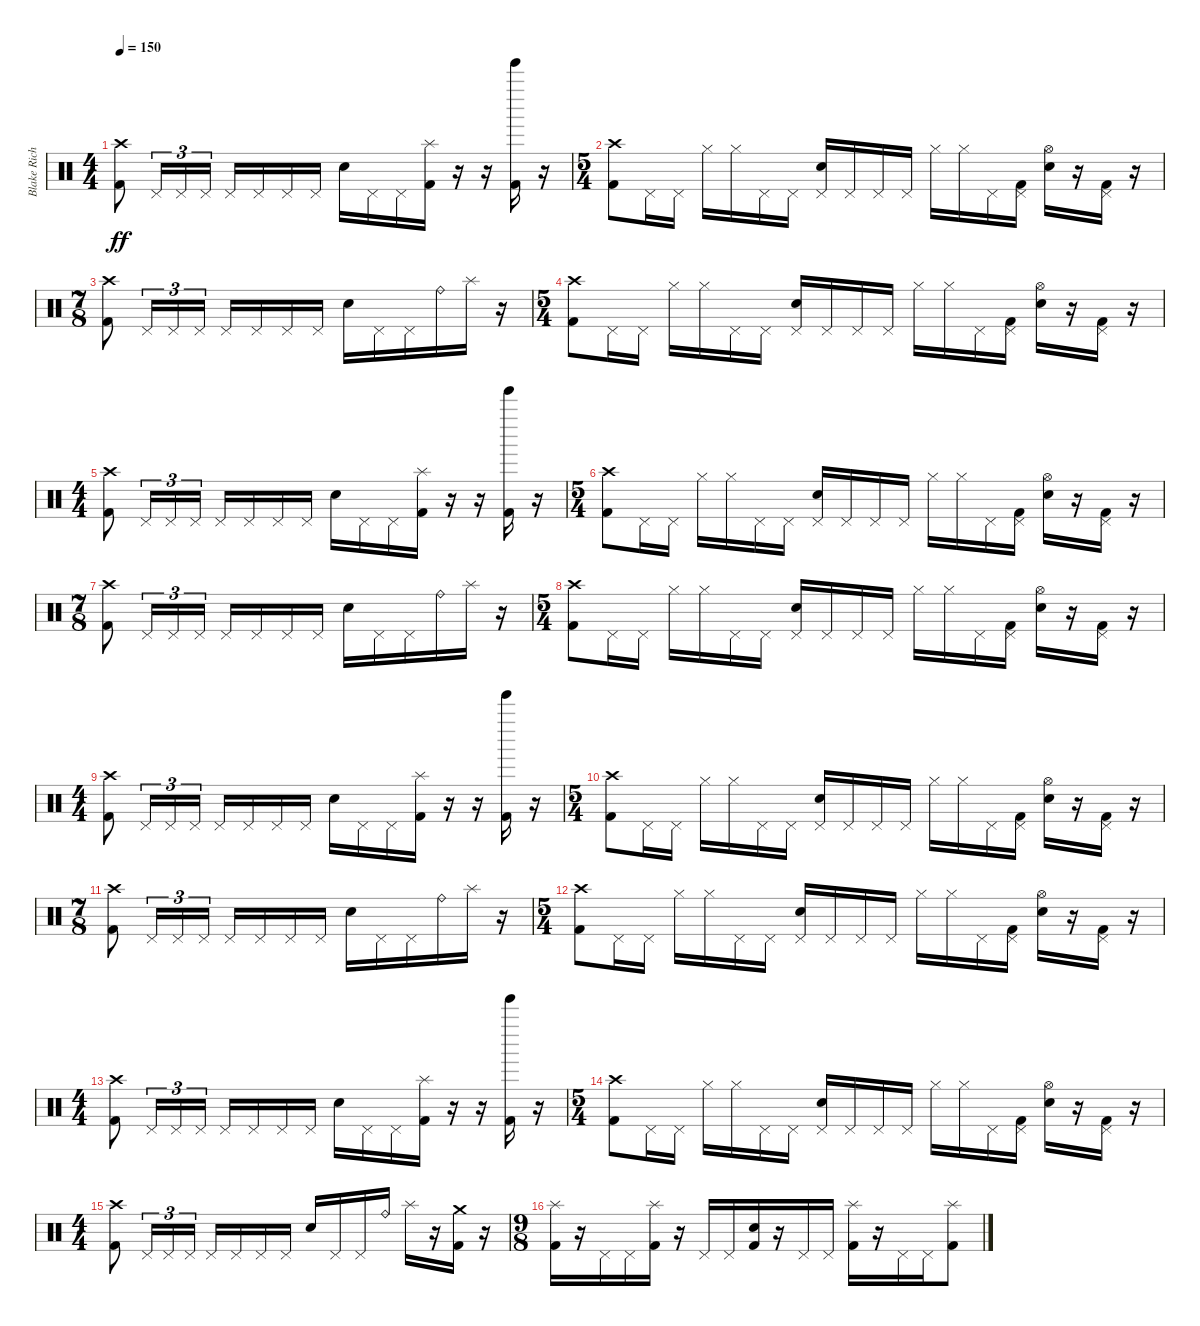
\track ("Blake Richardson" "Blake Rich") {instrument percussion}
\staff {score}
\articulation defaults
\ts (4 4)
\tempo 150
\clef neutral
\ks c
("Crash high (hit)" "Kick (hit) 2").8{dy ff} "Pedal Hi-Hat (hit)".16{tu (3 2)} "Pedal Hi-Hat (hit)".16{tu (3 2)} "Pedal Hi-Hat (hit)".16{tu (3 2)} "Pedal Hi-Hat (hit)".16 "Pedal Hi-Hat (hit)".16 "Pedal Hi-Hat (hit)".16 "Pedal Hi-Hat (hit)".16 "Electric Snare (hit)".16 "Pedal Hi-Hat (hit)".16 "Pedal Hi-Hat (hit)".16 ("Splash (hit)" "Kick (hit) 2").16 r.16 r.16 ("Tinkle Bell (hit)" "Kick (hit) 2").16 r.16 |
\ts (5 4)
("Crash high (hit)" "Kick (hit) 2").8 "Pedal Hi-Hat (hit)".16 "Pedal Hi-Hat (hit)".16 "Hi-Hat (closed)".16 "Hi-Hat (closed)".16 "Pedal Hi-Hat (hit)".16 "Pedal Hi-Hat (hit)".16 ("Pedal Hi-Hat (hit)" "Electric Snare (hit)").16 "Pedal Hi-Hat (hit)".16 "Pedal Hi-Hat (hit)".16 "Pedal Hi-Hat (hit)".16 "Hi-Hat (closed)".16 "Hi-Hat (closed)".16 "Pedal Hi-Hat (hit)".16 ("Pedal Hi-Hat (hit)" "Kick (hit) 2").16 ("Hi-Hat (open)" "Electric Snare (hit)").16 r.16 ("Pedal Hi-Hat (hit)" "Kick (hit) 2").16 r.16 |
\ts (7 8)
("Crash high (hit)" "Kick (hit) 2").8 "Pedal Hi-Hat (hit)".16{tu (3 2)} "Pedal Hi-Hat (hit)".16{tu (3 2)} "Pedal Hi-Hat (hit)".16{tu (3 2)} "Pedal Hi-Hat (hit)".16 "Pedal Hi-Hat (hit)".16 "Pedal Hi-Hat (hit)".16 "Pedal Hi-Hat (hit)".16 "Electric Snare (hit)".16 "Pedal Hi-Hat (hit)".16 "Pedal Hi-Hat (hit)".16 "Ride (bell)".16 "Splash (hit)".16 r.16 |
\ts (5 4)
("Crash high (hit)" "Kick (hit) 2").8 "Pedal Hi-Hat (hit)".16 "Pedal Hi-Hat (hit)".16 "Hi-Hat (closed)".16 "Hi-Hat (closed)".16 "Pedal Hi-Hat (hit)".16 "Pedal Hi-Hat (hit)".16 ("Pedal Hi-Hat (hit)" "Electric Snare (hit)").16 "Pedal Hi-Hat (hit)".16 "Pedal Hi-Hat (hit)".16 "Pedal Hi-Hat (hit)".16 "Hi-Hat (closed)".16 "Hi-Hat (closed)".16 "Pedal Hi-Hat (hit)".16 ("Pedal Hi-Hat (hit)" "Kick (hit) 2").16 ("Hi-Hat (open)" "Electric Snare (hit)").16 r.16 ("Pedal Hi-Hat (hit)" "Kick (hit) 2").16 r.16 |
\ts (4 4)
("Crash high (hit)" "Kick (hit) 2").8 "Pedal Hi-Hat (hit)".16{tu (3 2)} "Pedal Hi-Hat (hit)".16{tu (3 2)} "Pedal Hi-Hat (hit)".16{tu (3 2)} "Pedal Hi-Hat (hit)".16 "Pedal Hi-Hat (hit)".16 "Pedal Hi-Hat (hit)".16 "Pedal Hi-Hat (hit)".16 "Electric Snare (hit)".16 "Pedal Hi-Hat (hit)".16 "Pedal Hi-Hat (hit)".16 ("Splash (hit)" "Kick (hit) 2").16 r.16 r.16 ("Tinkle Bell (hit)" "Kick (hit) 2").16 r.16 |
\ts (5 4)
("Crash high (hit)" "Kick (hit) 2").8 "Pedal Hi-Hat (hit)".16 "Pedal Hi-Hat (hit)".16 "Hi-Hat (closed)".16 "Hi-Hat (closed)".16 "Pedal Hi-Hat (hit)".16 "Pedal Hi-Hat (hit)".16 ("Pedal Hi-Hat (hit)" "Electric Snare (hit)").16 "Pedal Hi-Hat (hit)".16 "Pedal Hi-Hat (hit)".16 "Pedal Hi-Hat (hit)".16 "Hi-Hat (closed)".16 "Hi-Hat (closed)".16 "Pedal Hi-Hat (hit)".16 ("Pedal Hi-Hat (hit)" "Kick (hit) 2").16 ("Hi-Hat (open)" "Electric Snare (hit)").16 r.16 ("Pedal Hi-Hat (hit)" "Kick (hit) 2").16 r.16 |
\ts (7 8)
("Crash high (hit)" "Kick (hit) 2").8 "Pedal Hi-Hat (hit)".16{tu (3 2)} "Pedal Hi-Hat (hit)".16{tu (3 2)} "Pedal Hi-Hat (hit)".16{tu (3 2)} "Pedal Hi-Hat (hit)".16 "Pedal Hi-Hat (hit)".16 "Pedal Hi-Hat (hit)".16 "Pedal Hi-Hat (hit)".16 "Electric Snare (hit)".16 "Pedal Hi-Hat (hit)".16 "Pedal Hi-Hat (hit)".16 "Ride (bell)".16 "Splash (hit)".16 r.16 |
\ts (5 4)
("Crash high (hit)" "Kick (hit) 2").8 "Pedal Hi-Hat (hit)".16 "Pedal Hi-Hat (hit)".16 "Hi-Hat (closed)".16 "Hi-Hat (closed)".16 "Pedal Hi-Hat (hit)".16 "Pedal Hi-Hat (hit)".16 ("Pedal Hi-Hat (hit)" "Electric Snare (hit)").16 "Pedal Hi-Hat (hit)".16 "Pedal Hi-Hat (hit)".16 "Pedal Hi-Hat (hit)".16 "Hi-Hat (closed)".16 "Hi-Hat (closed)".16 "Pedal Hi-Hat (hit)".16 ("Pedal Hi-Hat (hit)" "Kick (hit) 2").16 ("Hi-Hat (open)" "Electric Snare (hit)").16 r.16 ("Pedal Hi-Hat (hit)" "Kick (hit) 2").16 r.16 |
\ts (4 4)
("Crash high (hit)" "Kick (hit) 2").8 "Pedal Hi-Hat (hit)".16{tu (3 2)} "Pedal Hi-Hat (hit)".16{tu (3 2)} "Pedal Hi-Hat (hit)".16{tu (3 2)} "Pedal Hi-Hat (hit)".16 "Pedal Hi-Hat (hit)".16 "Pedal Hi-Hat (hit)".16 "Pedal Hi-Hat (hit)".16 "Electric Snare (hit)".16 "Pedal Hi-Hat (hit)".16 "Pedal Hi-Hat (hit)".16 ("Splash (hit)" "Kick (hit) 2").16 r.16 r.16 ("Tinkle Bell (hit)" "Kick (hit) 2").16 r.16 |
\ts (5 4)
("Crash high (hit)" "Kick (hit) 2").8 "Pedal Hi-Hat (hit)".16 "Pedal Hi-Hat (hit)".16 "Hi-Hat (closed)".16 "Hi-Hat (closed)".16 "Pedal Hi-Hat (hit)".16 "Pedal Hi-Hat (hit)".16 ("Pedal Hi-Hat (hit)" "Electric Snare (hit)").16 "Pedal Hi-Hat (hit)".16 "Pedal Hi-Hat (hit)".16 "Pedal Hi-Hat (hit)".16 "Hi-Hat (closed)".16 "Hi-Hat (closed)".16 "Pedal Hi-Hat (hit)".16 ("Pedal Hi-Hat (hit)" "Kick (hit) 2").16 ("Hi-Hat (open)" "Electric Snare (hit)").16 r.16 ("Pedal Hi-Hat (hit)" "Kick (hit) 2").16 r.16 |
\ts (7 8)
("Crash high (hit)" "Kick (hit) 2").8 "Pedal Hi-Hat (hit)".16{tu (3 2)} "Pedal Hi-Hat (hit)".16{tu (3 2)} "Pedal Hi-Hat (hit)".16{tu (3 2)} "Pedal Hi-Hat (hit)".16 "Pedal Hi-Hat (hit)".16 "Pedal Hi-Hat (hit)".16 "Pedal Hi-Hat (hit)".16 "Electric Snare (hit)".16 "Pedal Hi-Hat (hit)".16 "Pedal Hi-Hat (hit)".16 "Ride (bell)".16 "Splash (hit)".16 r.16 |
\ts (5 4)
("Crash high (hit)" "Kick (hit) 2").8 "Pedal Hi-Hat (hit)".16 "Pedal Hi-Hat (hit)".16 "Hi-Hat (closed)".16 "Hi-Hat (closed)".16 "Pedal Hi-Hat (hit)".16 "Pedal Hi-Hat (hit)".16 ("Pedal Hi-Hat (hit)" "Electric Snare (hit)").16 "Pedal Hi-Hat (hit)".16 "Pedal Hi-Hat (hit)".16 "Pedal Hi-Hat (hit)".16 "Hi-Hat (closed)".16 "Hi-Hat (closed)".16 "Pedal Hi-Hat (hit)".16 ("Pedal Hi-Hat (hit)" "Kick (hit) 2").16 ("Hi-Hat (open)" "Electric Snare (hit)").16 r.16 ("Pedal Hi-Hat (hit)" "Kick (hit) 2").16 r.16 |
\ts (4 4)
("Crash high (hit)" "Kick (hit) 2").8 "Pedal Hi-Hat (hit)".16{tu (3 2)} "Pedal Hi-Hat (hit)".16{tu (3 2)} "Pedal Hi-Hat (hit)".16{tu (3 2)} "Pedal Hi-Hat (hit)".16 "Pedal Hi-Hat (hit)".16 "Pedal Hi-Hat (hit)".16 "Pedal Hi-Hat (hit)".16 "Electric Snare (hit)".16 "Pedal Hi-Hat (hit)".16 "Pedal Hi-Hat (hit)".16 ("Splash (hit)" "Kick (hit) 2").16 r.16 r.16 ("Tinkle Bell (hit)" "Kick (hit) 2").16 r.16 |
\ts (5 4)
("Crash high (hit)" "Kick (hit) 2").8 "Pedal Hi-Hat (hit)".16 "Pedal Hi-Hat (hit)".16 "Hi-Hat (closed)".16 "Hi-Hat (closed)".16 "Pedal Hi-Hat (hit)".16 "Pedal Hi-Hat (hit)".16 ("Pedal Hi-Hat (hit)" "Electric Snare (hit)").16 "Pedal Hi-Hat (hit)".16 "Pedal Hi-Hat (hit)".16 "Pedal Hi-Hat (hit)".16 "Hi-Hat (closed)".16 "Hi-Hat (closed)".16 "Pedal Hi-Hat (hit)".16 ("Pedal Hi-Hat (hit)" "Kick (hit) 2").16 ("Hi-Hat (open)" "Electric Snare (hit)").16 r.16 ("Pedal Hi-Hat (hit)" "Kick (hit) 2").16 r.16 |
\ts (4 4)
("Crash high (hit)" "Kick (hit) 2").8 "Pedal Hi-Hat (hit)".16{tu (3 2)} "Pedal Hi-Hat (hit)".16{tu (3 2)} "Pedal Hi-Hat (hit)".16{tu (3 2)} "Pedal Hi-Hat (hit)".16 "Pedal Hi-Hat (hit)".16 "Pedal Hi-Hat (hit)".16 "Pedal Hi-Hat (hit)".16 "Electric Snare (hit)".16 "Pedal Hi-Hat (hit)".16 "Pedal Hi-Hat (hit)".16 "Ride (bell)".16 "Splash (hit)".16 r.16 ("Crash medium (hit)" "Kick (hit) 2").16 r.16 |
\ts (9 8)
("Splash (hit)" "Kick (hit) 2").16 r.16 "Pedal Hi-Hat (hit)".16 "Pedal Hi-Hat (hit)".16 ("Splash (hit)" "Kick (hit) 2").16 r.16 "Pedal Hi-Hat (hit)".16 "Pedal Hi-Hat (hit)".16 ("Electric Snare (hit)" "Kick (hit) 2").16 r.16 "Pedal Hi-Hat (hit)".16 "Pedal Hi-Hat (hit)".16 ("Splash (hit)" "Kick (hit) 2").16 r.16 "Pedal Hi-Hat (hit)".16 "Pedal Hi-Hat (hit)".16 ("Splash (hit)" "Kick (hit) 2").8
